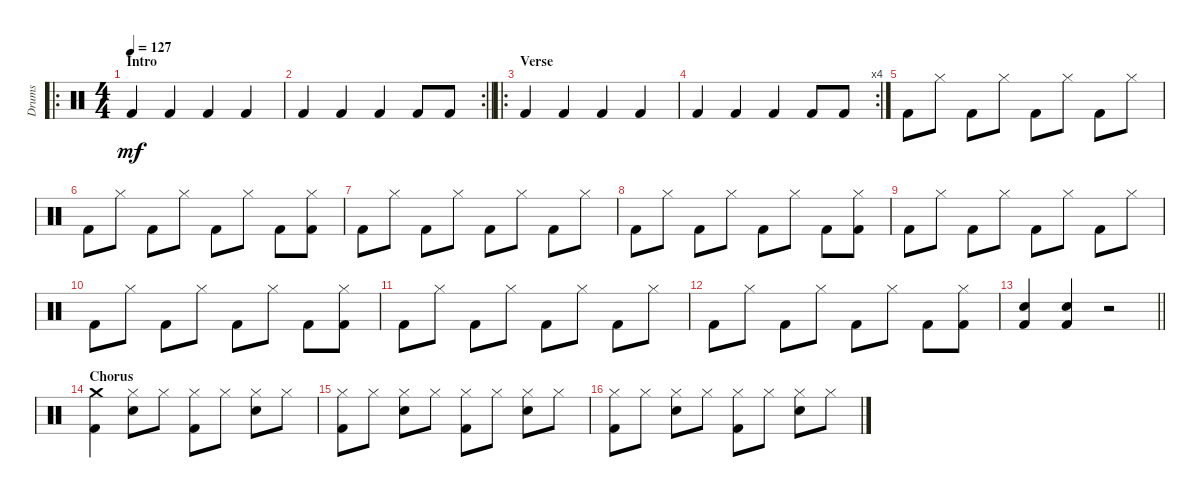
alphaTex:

\track ("Drums" "Drums") {instrument percussion}
\staff {score}
\articulation defaults
\ro
\ts (4 4)
\section ("" "Intro")
\tempo 127
\clef neutral
\ks c "Kick (hit) 2".4{dy mf} "Kick (hit) 2".4 "Kick (hit) 2".4 "Kick (hit) 2".4
|
\rc 2
\barLineRight lightlight "Kick (hit) 2".4 "Kick (hit) 2".4 "Kick (hit) 2".4 "Kick (hit) 2".8 "Kick (hit) 2".8
|
\ro
\section ("" "Verse")
"Kick (hit) 2".4 "Kick (hit) 2".4 "Kick (hit) 2".4 "Kick (hit) 2".4 |
\rc 4 "Kick (hit) 2".4 "Kick (hit) 2".4 "Kick (hit) 2".4 "Kick (hit) 2".8 "Kick (hit) 2".8
|
"Kick (hit) 2".8 "Hi-Hat (closed)".8 "Kick (hit) 2".8 "Hi-Hat (closed)".8 "Kick (hit) 2".8 "Hi-Hat (closed)".8 "Kick (hit) 2".8 "Hi-Hat (closed)".8 |
"Kick (hit) 2".8 "Hi-Hat (closed)".8 "Kick (hit) 2".8 "Hi-Hat (closed)".8 "Kick (hit) 2".8 "Hi-Hat (closed)".8 "Kick (hit) 2".8 ("Hi-Hat (closed)" "Kick (hit) 2").8 |
"Kick (hit) 2".8 "Hi-Hat (closed)".8 "Kick (hit) 2".8 "Hi-Hat (closed)".8 "Kick (hit) 2".8 "Hi-Hat (closed)".8 "Kick (hit) 2".8 "Hi-Hat (closed)".8 |
"Kick (hit) 2".8 "Hi-Hat (closed)".8 "Kick (hit) 2".8 "Hi-Hat (closed)".8 "Kick (hit) 2".8 "Hi-Hat (closed)".8 "Kick (hit) 2".8 ("Hi-Hat (closed)" "Kick (hit) 2").8 |
"Kick (hit) 2".8 "Hi-Hat (closed)".8 "Kick (hit) 2".8 "Hi-Hat (closed)".8 "Kick (hit) 2".8 "Hi-Hat (closed)".8 "Kick (hit) 2".8 "Hi-Hat (closed)".8 |
"Kick (hit) 2".8 "Hi-Hat (closed)".8 "Kick (hit) 2".8 "Hi-Hat (closed)".8 "Kick (hit) 2".8 "Hi-Hat (closed)".8 "Kick (hit) 2".8 ("Hi-Hat (closed)" "Kick (hit) 2").8 |
"Kick (hit) 2".8 "Hi-Hat (closed)".8 "Kick (hit) 2".8 "Hi-Hat (closed)".8 "Kick (hit) 2".8 "Hi-Hat (closed)".8 "Kick (hit) 2".8 "Hi-Hat (closed)".8 |
"Kick (hit) 2".8 "Hi-Hat (closed)".8 "Kick (hit) 2".8 "Hi-Hat (closed)".8 "Kick (hit) 2".8 "Hi-Hat (closed)".8 "Kick (hit) 2".8 ("Hi-Hat (closed)" "Kick (hit) 2").8 |
\barLineRight lightlight
("Electric Snare (hit)" "Kick (hit) 2").4 ("Electric Snare (hit)" "Kick (hit) 2").4 r.2 |
\section ("" "Chorus")
("Crash medium (hit)" "Kick (hit) 2").4 ("Hi-Hat (closed)" "Electric Snare (hit)").8 "Hi-Hat (closed)".8 ("Hi-Hat (closed)" "Kick (hit) 2").8 "Hi-Hat (closed)".8 ("Hi-Hat (closed)" "Electric Snare (hit)").8 "Hi-Hat (closed)".8 |
("Hi-Hat (closed)" "Kick (hit) 2").8 "Hi-Hat (closed)".8 ("Hi-Hat (closed)" "Electric Snare (hit)").8 "Hi-Hat (closed)".8 ("Hi-Hat (closed)" "Kick (hit) 2").8 "Hi-Hat (closed)".8 ("Hi-Hat (closed)" "Electric Snare (hit)").8 "Hi-Hat (closed)".8 |
("Hi-Hat (closed)" "Kick (hit) 2").8 "Hi-Hat (closed)".8 ("Hi-Hat (closed)" "Electric Snare (hit)").8 "Hi-Hat (closed)".8 ("Hi-Hat (closed)" "Kick (hit) 2").8 "Hi-Hat (closed)".8 ("Hi-Hat (closed)" "Electric Snare (hit)").8 "Hi-Hat (closed)".8
